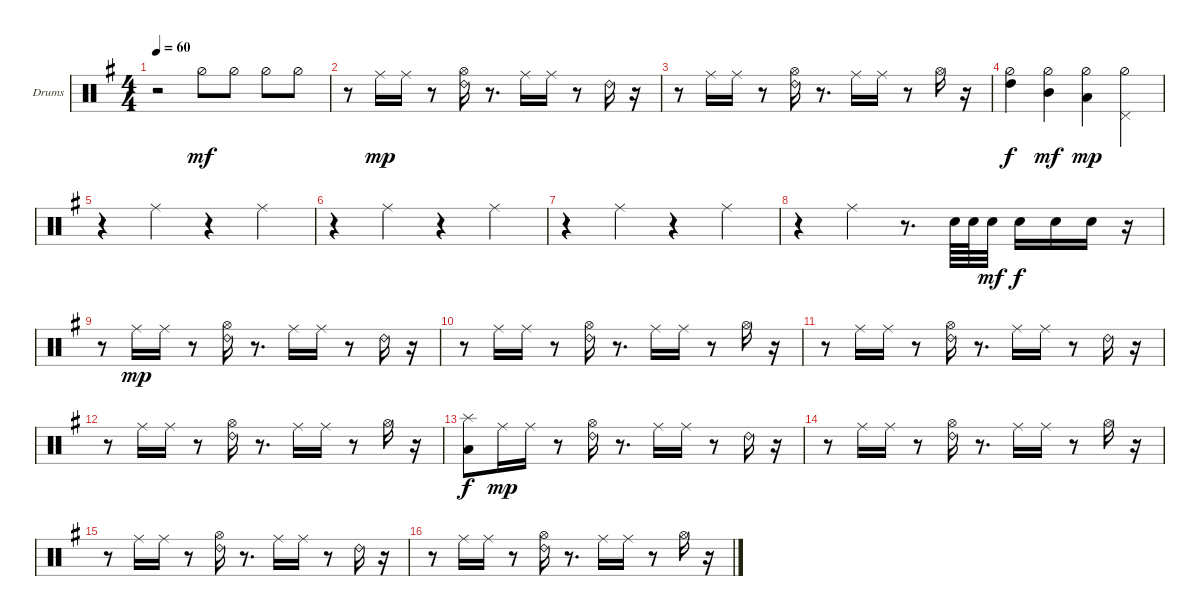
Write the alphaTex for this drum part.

\defaultSystemsLayout 4
\bracketExtendMode groupsimilarinstruments
\firstSystemTrackNameOrientation horizontal
\otherSystemsTrackNameOrientation horizontal
\track ("Drumkit (Darrell Sweet)" "Drums") {instrument percussion}
\staff {score}
\articulation defaults
\ts (4 4)
\tempo 60
\clef neutral
\ks eminor
r.2{dy mf} "Hi-Hat (half)".8 "Hi-Hat (half)".8 "Hi-Hat (half)".8 "Hi-Hat (half)".8 |
r.8 "Ride (middle)".16{dy mp} "Ride (middle)".16 r.8 ("Hi-Hat (open)" "Ride (bell) 2").16 r.8{d} "Ride (middle)".16 "Ride (middle)".16 r.8 "Ride (bell) 2".16 r.16 |
r.8 "Ride (middle)".16 "Ride (middle)".16 r.8 ("Ride (bell) 2" "Hi-Hat (open)").16 r.8{d} "Ride (middle)".16 "Ride (middle)".16 r.8 "Hi-Hat (open)".16 r.16 |
("Hi-Hat (half)" "High Tom (hit)").4{dy f} ("Hi-Hat (half)" "Mid Tom (hit)").4{dy mf} ("Hi-Hat (half)" "Low Tom (hit)").4{dy mp} ("Hi-Hat (half)" "Pedal Hi-Hat (hit)").4 |
r.4 "Ride (middle)".4 r.4 "Ride (middle)".4 |
r.4 "Ride (middle)".4 r.4 "Ride (middle)".4 |
r.4 "Ride (middle)".4 r.4 "Ride (middle)".4 |
r.4 "Ride (middle)".4 r.8{d} "Snare (hit) 2".64 "Snare (hit) 2".64 "Snare (hit) 2".32{dy mf} "Snare (hit) 2".16{dy f} "Snare (hit) 2".16 "Snare (hit) 2".16 r.16 |
r.8 "Ride (middle)".16{dy mp} "Ride (middle)".16 r.8 ("Hi-Hat (open)" "Ride (bell) 2").16 r.8{d} "Ride (middle)".16 "Ride (middle)".16 r.8 "Ride (bell) 2".16 r.16 |
r.8 "Ride (middle)".16 "Ride (middle)".16 r.8 ("Ride (bell) 2" "Hi-Hat (open)").16 r.8{d} "Ride (middle)".16 "Ride (middle)".16 r.8 "Hi-Hat (open)".16 r.16 |
r.8 "Ride (middle)".16 "Ride (middle)".16 r.8 ("Hi-Hat (open)" "Ride (bell) 2").16 r.8{d} "Ride (middle)".16 "Ride (middle)".16 r.8 "Ride (bell) 2".16 r.16 |
r.8 "Ride (middle)".16 "Ride (middle)".16 r.8 ("Ride (bell) 2" "Hi-Hat (open)").16 r.8{d} "Ride (middle)".16 "Ride (middle)".16 r.8 "Hi-Hat (open)".16 r.16 |
("Low Tom (hit)" "Splash (hit)").8{dy f} "Ride (middle)".16{dy mp} "Ride (middle)".16 r.8 ("Hi-Hat (open)" "Ride (bell) 2").16 r.8{d} "Ride (middle)".16 "Ride (middle)".16 r.8 "Ride (bell) 2".16 r.16 |
r.8 "Ride (middle)".16 "Ride (middle)".16 r.8 ("Hi-Hat (open)" "Ride (bell) 2").16 r.8{d} "Ride (middle)".16 "Ride (middle)".16 r.8 "Hi-Hat (open)".16 r.16 |
r.8 "Ride (middle)".16 "Ride (middle)".16 r.8 ("Hi-Hat (open)" "Ride (bell) 2").16 r.8{d} "Ride (middle)".16 "Ride (middle)".16 r.8 "Ride (bell) 2".16 r.16 |
r.8 "Ride (middle)".16 "Ride (middle)".16 r.8 ("Ride (bell) 2" "Hi-Hat (open)").16 r.8{d} "Ride (middle)".16 "Ride (middle)".16 r.8 "Hi-Hat (open)".16 r.16
